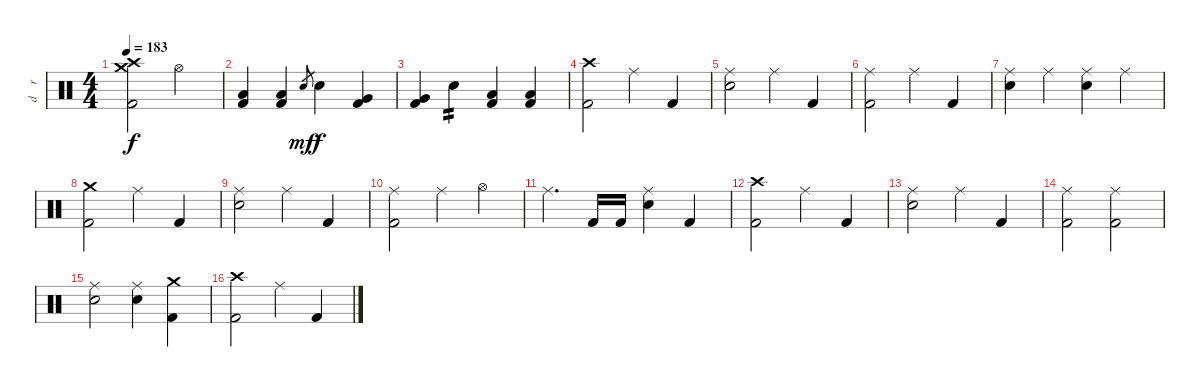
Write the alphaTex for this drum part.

\track ("d    r     u    m    s" "d    r    ") {instrument percussion}
\staff {score}
\articulation defaults
\ts (4 4)
\tempo 183
\clef neutral
\ks c
("Crash high (hit)" "Crash medium (hit)" "Kick (hit) 2").2{dy f volume 16} "Hi-Hat (open)".2 |
("Low Tom (hit)" "Kick (hit) 2").4 ("Low Tom (hit)" "Kick (hit) 2").4 "Snare (hit) 2".8{gr dy mf} "Snare (hit) 2".4{dy f} ("Very Low Tom (hit)" "Kick (hit) 2").4 |
("Very Low Tom (hit)" "Kick (hit) 2").4 "Snare (hit) 2".4{tp 2} ("Low Floor Tom (hit)" "Kick (hit) 2").4 ("Low Floor Tom (hit)" "Kick (hit) 2").4 |
("Crash high (hit)" "Kick (hit) 2").2 "Ride (middle)".4 "Kick (hit) 2".4 |
("Ride (middle)" "Snare (hit) 2").2 "Ride (middle)".4 "Kick (hit) 2".4 |
("Ride (middle)" "Kick (hit) 2").2 "Ride (middle)".4 "Kick (hit) 2".4 |
("Ride (middle)" "Snare (hit) 2").4 "Ride (middle)".4 ("Ride (middle)" "Snare (hit) 2").4 "Ride (middle)".4 |
("Crash medium (hit)" "Kick (hit) 2").2 "Ride (middle)".4 "Kick (hit) 2".4 |
("Ride (middle)" "Snare (hit) 2").2 "Ride (middle)".4 "Kick (hit) 2".4 |
("Ride (middle)" "Kick (hit) 2").2 "Ride (middle)".4 "Hi-Hat (open)".4 |
"Ride (middle)".4{d} "Kick (hit) 2".16 "Kick (hit) 2".16 ("Ride (middle)" "Snare (hit) 2").4 "Kick (hit) 2".4 |
("Crash high (hit)" "Kick (hit) 2").2 "Ride (middle)".4 "Kick (hit) 2".4 |
("Ride (middle)" "Snare (hit) 2").2 "Ride (middle)".4 "Kick (hit) 2".4 |
("Ride (middle)" "Kick (hit) 2").2 ("Ride (middle)" "Kick (hit) 2").2 |
("Ride (middle)" "Snare (hit) 2").2 ("Ride (middle)" "Snare (hit) 2").4 ("Crash medium (hit)" "Kick (hit) 2").4 |
("Crash high (hit)" "Kick (hit) 2").2 "Ride (middle)".4 "Kick (hit) 2".4
